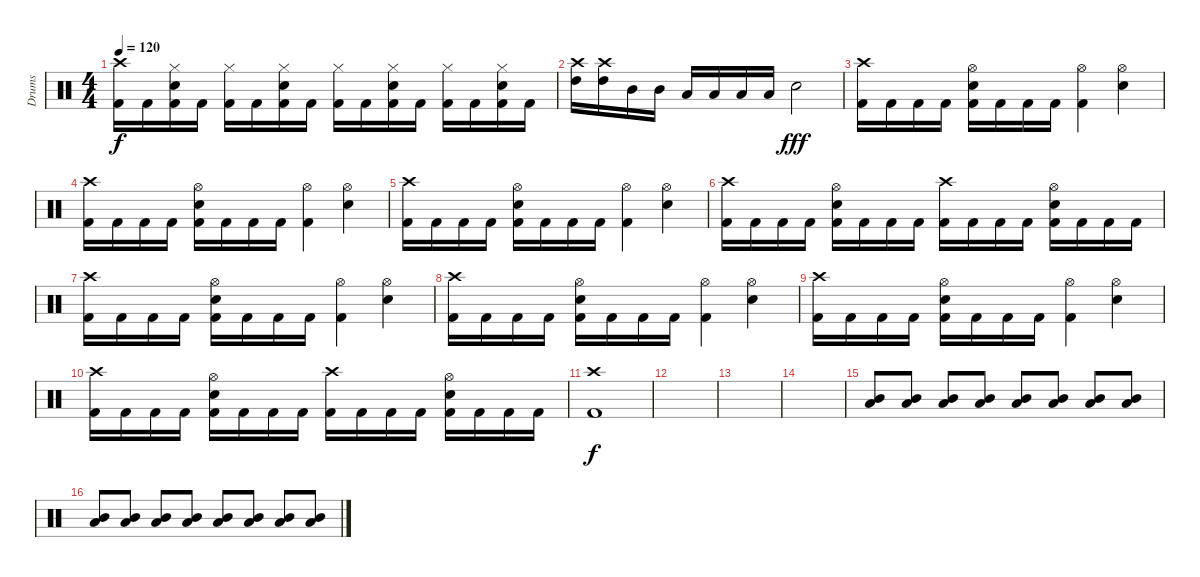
\track ("Drums" "Drums") {instrument percussion}
\staff {score}
\articulation defaults
\ts (4 4)
\tempo 120
\clef neutral
\ks c
("Crash high (hit)" "Kick (hit) 2").16{dy f} "Kick (hit) 2".16 ("Hi-Hat (closed)" "Snare (hit) 2" "Kick (hit) 2").16 "Kick (hit) 2".16 ("Hi-Hat (closed)" "Kick (hit) 2").16 "Kick (hit) 2".16 ("Hi-Hat (closed)" "Snare (hit) 2" "Kick (hit) 2").16 "Kick (hit) 2".16 ("Hi-Hat (closed)" "Kick (hit) 2").16 "Kick (hit) 2".16 ("Hi-Hat (closed)" "Snare (hit) 2" "Kick (hit) 2").16 "Kick (hit) 2".16 ("Hi-Hat (closed)" "Kick (hit) 2").16 "Kick (hit) 2".16 ("Hi-Hat (closed)" "Snare (hit) 2" "Kick (hit) 2").16 "Kick (hit) 2".16 |
("Crash high (hit)" "High Tom (hit)").16 ("Crash high (hit)" "High Tom (hit)").16 "Mid Tom (hit)".16 "Mid Tom (hit)".16 "Low Tom (hit)".16 "Low Tom (hit)".16 "Low Tom (hit)".16 "Low Tom (hit)".16 "Snare (hit) 2".2{dy fff} |
("Crash high (hit)" "Kick (hit) 2").16 "Kick (hit) 2".16 "Kick (hit) 2".16 "Kick (hit) 2".16 ("Hi-Hat (open)" "Kick (hit) 2" "Snare (hit) 2").16 "Kick (hit) 2".16 "Kick (hit) 2".16 "Kick (hit) 2".16 ("Hi-Hat (open)" "Kick (hit) 2").4 ("Hi-Hat (open)" "Snare (hit) 2").4 |
("Crash high (hit)" "Kick (hit) 2").16 "Kick (hit) 2".16 "Kick (hit) 2".16 "Kick (hit) 2".16 ("Hi-Hat (open)" "Kick (hit) 2" "Snare (hit) 2").16 "Kick (hit) 2".16 "Kick (hit) 2".16 "Kick (hit) 2".16 ("Hi-Hat (open)" "Kick (hit) 2").4 ("Hi-Hat (open)" "Snare (hit) 2").4 |
("Crash high (hit)" "Kick (hit) 2").16 "Kick (hit) 2".16 "Kick (hit) 2".16 "Kick (hit) 2".16 ("Hi-Hat (open)" "Kick (hit) 2" "Snare (hit) 2").16 "Kick (hit) 2".16 "Kick (hit) 2".16 "Kick (hit) 2".16 ("Hi-Hat (open)" "Kick (hit) 2").4 ("Hi-Hat (open)" "Snare (hit) 2").4 |
("Crash high (hit)" "Kick (hit) 2").16 "Kick (hit) 2".16 "Kick (hit) 2".16 "Kick (hit) 2".16 ("Hi-Hat (open)" "Kick (hit) 2" "Snare (hit) 2").16 "Kick (hit) 2".16 "Kick (hit) 2".16 "Kick (hit) 2".16 ("Crash high (hit)" "Kick (hit) 2").16 "Kick (hit) 2".16 "Kick (hit) 2".16 "Kick (hit) 2".16 ("Hi-Hat (open)" "Kick (hit) 2" "Snare (hit) 2").16 "Kick (hit) 2".16 "Kick (hit) 2".16 "Kick (hit) 2".16 |
("Crash high (hit)" "Kick (hit) 2").16 "Kick (hit) 2".16 "Kick (hit) 2".16 "Kick (hit) 2".16 ("Hi-Hat (open)" "Kick (hit) 2" "Snare (hit) 2").16 "Kick (hit) 2".16 "Kick (hit) 2".16 "Kick (hit) 2".16 ("Hi-Hat (open)" "Kick (hit) 2").4 ("Hi-Hat (open)" "Snare (hit) 2").4 |
("Crash high (hit)" "Kick (hit) 2").16 "Kick (hit) 2".16 "Kick (hit) 2".16 "Kick (hit) 2".16 ("Hi-Hat (open)" "Kick (hit) 2" "Snare (hit) 2").16 "Kick (hit) 2".16 "Kick (hit) 2".16 "Kick (hit) 2".16 ("Hi-Hat (open)" "Kick (hit) 2").4 ("Hi-Hat (open)" "Snare (hit) 2").4 |
("Crash high (hit)" "Kick (hit) 2").16 "Kick (hit) 2".16 "Kick (hit) 2".16 "Kick (hit) 2".16 ("Hi-Hat (open)" "Kick (hit) 2" "Snare (hit) 2").16 "Kick (hit) 2".16 "Kick (hit) 2".16 "Kick (hit) 2".16 ("Hi-Hat (open)" "Kick (hit) 2").4 ("Hi-Hat (open)" "Snare (hit) 2").4 |
("Crash high (hit)" "Kick (hit) 2").16 "Kick (hit) 2".16 "Kick (hit) 2".16 "Kick (hit) 2".16 ("Hi-Hat (open)" "Kick (hit) 2" "Snare (hit) 2").16 "Kick (hit) 2".16 "Kick (hit) 2".16 "Kick (hit) 2".16 ("Crash high (hit)" "Kick (hit) 2").16 "Kick (hit) 2".16 "Kick (hit) 2".16 "Kick (hit) 2".16 ("Hi-Hat (open)" "Kick (hit) 2" "Snare (hit) 2").16 "Kick (hit) 2".16 "Kick (hit) 2".16 "Kick (hit) 2".16 |
("Crash high (hit)" "Kick (hit) 2").1{dy f} |
|
|
|
("Low Tom (hit)" "Mid Tom (hit)").8{volume 13} ("Low Tom (hit)" "Mid Tom (hit)").8 ("Low Tom (hit)" "Mid Tom (hit)").8 ("Low Tom (hit)" "Mid Tom (hit)").8 ("Low Tom (hit)" "Mid Tom (hit)").8 ("Low Tom (hit)" "Mid Tom (hit)").8 ("Low Tom (hit)" "Mid Tom (hit)").8 ("Low Tom (hit)" "Mid Tom (hit)").8 |
("Low Tom (hit)" "Mid Tom (hit)").8 ("Low Tom (hit)" "Mid Tom (hit)").8 ("Low Tom (hit)" "Mid Tom (hit)").8 ("Low Tom (hit)" "Mid Tom (hit)").8 ("Low Tom (hit)" "Mid Tom (hit)").8 ("Low Tom (hit)" "Mid Tom (hit)").8 ("Low Tom (hit)" "Mid Tom (hit)").8 ("Low Tom (hit)" "Mid Tom (hit)").8
